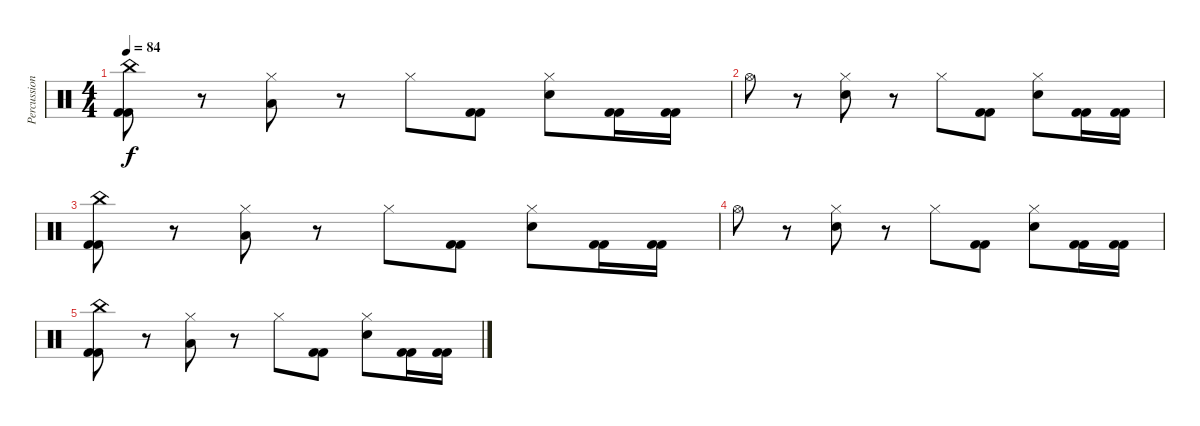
\track ("Percussion" "Percussion") {instrument percussion}
\staff {score}
\articulation defaults
\ts (4 4)
\tempo 84
\clef neutral
\ks c
("China (hit)" "Kick (hit) 2" "Kick (hit) 2").8{dy f} r.8 ("Hi-Hat (closed)" "Low Tom (hit)").8 r.8 "Hi-Hat (closed)".8 ("Kick (hit) 2" "Kick (hit) 2").8 ("Hi-Hat (closed)" "Electric Snare (hit)").8 ("Kick (hit) 2" "Kick (hit) 2").16 ("Kick (hit) 2" "Kick (hit) 2").16 |
"Hi-Hat (open)".8 r.8 ("Hi-Hat (closed)" "Electric Snare (hit)").8 r.8 "Hi-Hat (closed)".8 ("Kick (hit) 2" "Kick (hit) 2").8 ("Hi-Hat (closed)" "Electric Snare (hit)").8 ("Kick (hit) 2" "Kick (hit) 2").16 ("Kick (hit) 2" "Kick (hit) 2").16 |
("China (hit)" "Kick (hit) 2" "Kick (hit) 2").8 r.8 ("Hi-Hat (closed)" "Low Tom (hit)").8 r.8 "Hi-Hat (closed)".8 ("Kick (hit) 2" "Kick (hit) 2").8 ("Hi-Hat (closed)" "Electric Snare (hit)").8 ("Kick (hit) 2" "Kick (hit) 2").16 ("Kick (hit) 2" "Kick (hit) 2").16 |
"Hi-Hat (open)".8 r.8 ("Hi-Hat (closed)" "Electric Snare (hit)").8 r.8 "Hi-Hat (closed)".8 ("Kick (hit) 2" "Kick (hit) 2").8 ("Hi-Hat (closed)" "Electric Snare (hit)").8 ("Kick (hit) 2" "Kick (hit) 2").16 ("Kick (hit) 2" "Kick (hit) 2").16 |
("China (hit)" "Kick (hit) 2" "Kick (hit) 2").8 r.8 ("Hi-Hat (closed)" "Low Tom (hit)").8 r.8 "Hi-Hat (closed)".8 ("Kick (hit) 2" "Kick (hit) 2").8 ("Hi-Hat (closed)" "Electric Snare (hit)").8 ("Kick (hit) 2" "Kick (hit) 2").16 ("Kick (hit) 2" "Kick (hit) 2").16
